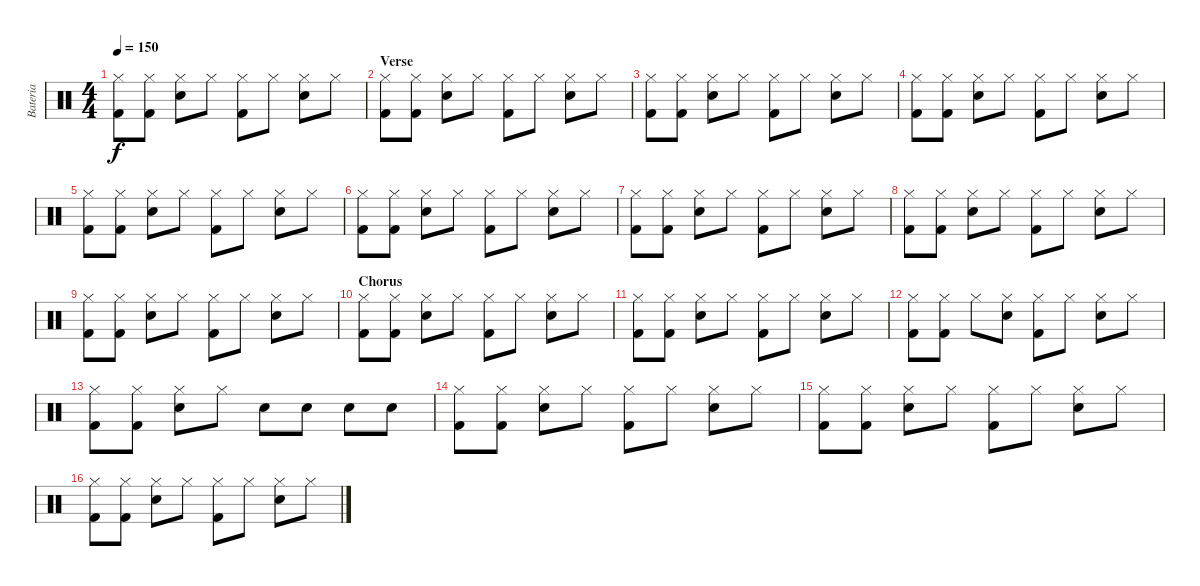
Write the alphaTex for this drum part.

\track ("Bateria" "Bateria") {instrument percussion}
\staff {score}
\articulation defaults
\ts (4 4)
\tempo 150
\clef neutral
\ks c
("Hi-Hat (closed)" "Kick (hit) 2").8{dy f} ("Hi-Hat (closed)" "Kick (hit) 2").8 ("Hi-Hat (closed)" "Snare (hit) 2").8 "Hi-Hat (closed)".8 ("Hi-Hat (closed)" "Kick (hit) 2").8 "Hi-Hat (closed)".8 ("Hi-Hat (closed)" "Snare (hit) 2").8 "Hi-Hat (closed)".8 |
\section ("" "Verse")
("Hi-Hat (closed)" "Kick (hit) 2").8 ("Hi-Hat (closed)" "Kick (hit) 2").8 ("Hi-Hat (closed)" "Snare (hit) 2").8 "Hi-Hat (closed)".8 ("Hi-Hat (closed)" "Kick (hit) 2").8 "Hi-Hat (closed)".8 ("Hi-Hat (closed)" "Snare (hit) 2").8 "Hi-Hat (closed)".8 |
("Hi-Hat (closed)" "Kick (hit) 2").8 ("Hi-Hat (closed)" "Kick (hit) 2").8 ("Hi-Hat (closed)" "Snare (hit) 2").8 "Hi-Hat (closed)".8 ("Hi-Hat (closed)" "Kick (hit) 2").8 "Hi-Hat (closed)".8 ("Hi-Hat (closed)" "Snare (hit) 2").8 "Hi-Hat (closed)".8 |
("Hi-Hat (closed)" "Kick (hit) 2").8 ("Hi-Hat (closed)" "Kick (hit) 2").8 ("Hi-Hat (closed)" "Snare (hit) 2").8 "Hi-Hat (closed)".8 ("Hi-Hat (closed)" "Kick (hit) 2").8 "Hi-Hat (closed)".8 ("Hi-Hat (closed)" "Snare (hit) 2").8 "Hi-Hat (closed)".8 |
("Hi-Hat (closed)" "Kick (hit) 2").8 ("Hi-Hat (closed)" "Kick (hit) 2").8 ("Hi-Hat (closed)" "Snare (hit) 2").8 "Hi-Hat (closed)".8 ("Hi-Hat (closed)" "Kick (hit) 2").8 "Hi-Hat (closed)".8 ("Hi-Hat (closed)" "Snare (hit) 2").8 "Hi-Hat (closed)".8 |
("Hi-Hat (closed)" "Kick (hit) 2").8 ("Hi-Hat (closed)" "Kick (hit) 2").8 ("Hi-Hat (closed)" "Snare (hit) 2").8 "Hi-Hat (closed)".8 ("Hi-Hat (closed)" "Kick (hit) 2").8 "Hi-Hat (closed)".8 ("Hi-Hat (closed)" "Snare (hit) 2").8 "Hi-Hat (closed)".8 |
("Hi-Hat (closed)" "Kick (hit) 2").8 ("Hi-Hat (closed)" "Kick (hit) 2").8 ("Hi-Hat (closed)" "Snare (hit) 2").8 "Hi-Hat (closed)".8 ("Hi-Hat (closed)" "Kick (hit) 2").8 "Hi-Hat (closed)".8 ("Hi-Hat (closed)" "Snare (hit) 2").8 "Hi-Hat (closed)".8 |
("Hi-Hat (closed)" "Kick (hit) 2").8 ("Hi-Hat (closed)" "Kick (hit) 2").8 ("Hi-Hat (closed)" "Snare (hit) 2").8 "Hi-Hat (closed)".8 ("Hi-Hat (closed)" "Kick (hit) 2").8 "Hi-Hat (closed)".8 ("Hi-Hat (closed)" "Snare (hit) 2").8 "Hi-Hat (closed)".8 |
("Hi-Hat (closed)" "Kick (hit) 2").8 ("Hi-Hat (closed)" "Kick (hit) 2").8 ("Hi-Hat (closed)" "Snare (hit) 2").8 "Hi-Hat (closed)".8 ("Hi-Hat (closed)" "Kick (hit) 2").8 "Hi-Hat (closed)".8 ("Hi-Hat (closed)" "Snare (hit) 2").8 "Hi-Hat (closed)".8 |
\section ("" "Chorus")
("Hi-Hat (closed)" "Kick (hit) 2").8 ("Hi-Hat (closed)" "Kick (hit) 2").8 ("Hi-Hat (closed)" "Snare (hit) 2").8 "Hi-Hat (closed)".8 ("Hi-Hat (closed)" "Kick (hit) 2").8 "Hi-Hat (closed)".8 ("Hi-Hat (closed)" "Snare (hit) 2").8 "Hi-Hat (closed)".8 |
("Hi-Hat (closed)" "Kick (hit) 2").8 ("Hi-Hat (closed)" "Kick (hit) 2").8 ("Hi-Hat (closed)" "Snare (hit) 2").8 "Hi-Hat (closed)".8 ("Hi-Hat (closed)" "Kick (hit) 2").8 "Hi-Hat (closed)".8 ("Hi-Hat (closed)" "Snare (hit) 2").8 "Hi-Hat (closed)".8 |
("Hi-Hat (closed)" "Kick (hit) 2").8 ("Hi-Hat (closed)" "Kick (hit) 2").8 "Hi-Hat (closed)".8 ("Hi-Hat (closed)" "Snare (hit) 2").8 ("Hi-Hat (closed)" "Kick (hit) 2").8 "Hi-Hat (closed)".8 ("Hi-Hat (closed)" "Snare (hit) 2").8 "Hi-Hat (closed)".8 |
("Hi-Hat (closed)" "Kick (hit) 2").8 ("Hi-Hat (closed)" "Kick (hit) 2").8 ("Hi-Hat (closed)" "Snare (hit) 2").8 "Hi-Hat (closed)".8 "Snare (hit) 2".8 "Snare (hit) 2".8 "Snare (hit) 2".8 "Snare (hit) 2".8 |
("Hi-Hat (closed)" "Kick (hit) 2").8 ("Hi-Hat (closed)" "Kick (hit) 2").8 ("Hi-Hat (closed)" "Snare (hit) 2").8 "Hi-Hat (closed)".8 ("Hi-Hat (closed)" "Kick (hit) 2").8 "Hi-Hat (closed)".8 ("Hi-Hat (closed)" "Snare (hit) 2").8 "Hi-Hat (closed)".8 |
("Hi-Hat (closed)" "Kick (hit) 2").8 ("Hi-Hat (closed)" "Kick (hit) 2").8 ("Hi-Hat (closed)" "Snare (hit) 2").8 "Hi-Hat (closed)".8 ("Hi-Hat (closed)" "Kick (hit) 2").8 "Hi-Hat (closed)".8 ("Hi-Hat (closed)" "Snare (hit) 2").8 "Hi-Hat (closed)".8 |
("Hi-Hat (closed)" "Kick (hit) 2").8 ("Hi-Hat (closed)" "Kick (hit) 2").8 ("Hi-Hat (closed)" "Snare (hit) 2").8 "Hi-Hat (closed)".8 ("Hi-Hat (closed)" "Kick (hit) 2").8 "Hi-Hat (closed)".8 ("Hi-Hat (closed)" "Snare (hit) 2").8 "Hi-Hat (closed)".8
